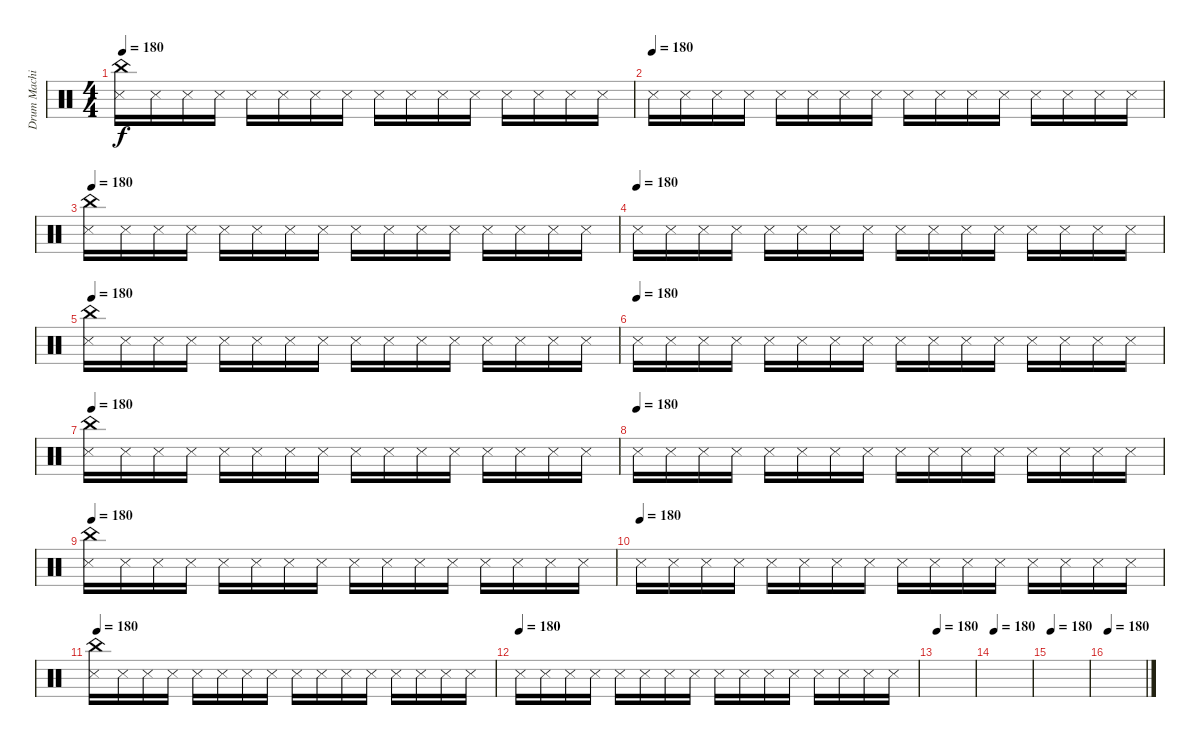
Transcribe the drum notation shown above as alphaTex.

\track ("Drum Machine" "Drum Machi") {instrument percussion}
\staff {score}
\articulation defaults
\ts (4 4)
\tempo 180
\clef neutral
\ks c
("China (hit)" "Snare (side stick) 3").16{dy f} "Snare (side stick) 3".16 "Snare (side stick) 3".16 "Snare (side stick) 3".16 "Snare (side stick) 3".16 "Snare (side stick) 3".16 "Snare (side stick) 3".16 "Snare (side stick) 3".16 "Snare (side stick) 3".16 "Snare (side stick) 3".16 "Snare (side stick) 3".16 "Snare (side stick) 3".16 "Snare (side stick) 3".16 "Snare (side stick) 3".16 "Snare (side stick) 3".16 "Snare (side stick) 3".16 |
\tempo (180)
"Snare (side stick) 3".16 "Snare (side stick) 3".16 "Snare (side stick) 3".16 "Snare (side stick) 3".16 "Snare (side stick) 3".16 "Snare (side stick) 3".16 "Snare (side stick) 3".16 "Snare (side stick) 3".16 "Snare (side stick) 3".16 "Snare (side stick) 3".16 "Snare (side stick) 3".16 "Snare (side stick) 3".16 "Snare (side stick) 3".16 "Snare (side stick) 3".16 "Snare (side stick) 3".16 "Snare (side stick) 3".16 |
\tempo 180
("China (hit)" "Snare (side stick) 3").16 "Snare (side stick) 3".16 "Snare (side stick) 3".16 "Snare (side stick) 3".16 "Snare (side stick) 3".16 "Snare (side stick) 3".16 "Snare (side stick) 3".16 "Snare (side stick) 3".16 "Snare (side stick) 3".16 "Snare (side stick) 3".16 "Snare (side stick) 3".16 "Snare (side stick) 3".16 "Snare (side stick) 3".16 "Snare (side stick) 3".16 "Snare (side stick) 3".16 "Snare (side stick) 3".16 |
\tempo (180)
"Snare (side stick) 3".16 "Snare (side stick) 3".16 "Snare (side stick) 3".16 "Snare (side stick) 3".16 "Snare (side stick) 3".16 "Snare (side stick) 3".16 "Snare (side stick) 3".16 "Snare (side stick) 3".16 "Snare (side stick) 3".16 "Snare (side stick) 3".16 "Snare (side stick) 3".16 "Snare (side stick) 3".16 "Snare (side stick) 3".16 "Snare (side stick) 3".16 "Snare (side stick) 3".16 "Snare (side stick) 3".16 |
\tempo 180
("China (hit)" "Snare (side stick) 3").16 "Snare (side stick) 3".16 "Snare (side stick) 3".16 "Snare (side stick) 3".16 "Snare (side stick) 3".16 "Snare (side stick) 3".16 "Snare (side stick) 3".16 "Snare (side stick) 3".16 "Snare (side stick) 3".16 "Snare (side stick) 3".16 "Snare (side stick) 3".16 "Snare (side stick) 3".16 "Snare (side stick) 3".16 "Snare (side stick) 3".16 "Snare (side stick) 3".16 "Snare (side stick) 3".16 |
\tempo (180)
"Snare (side stick) 3".16 "Snare (side stick) 3".16 "Snare (side stick) 3".16 "Snare (side stick) 3".16 "Snare (side stick) 3".16 "Snare (side stick) 3".16 "Snare (side stick) 3".16 "Snare (side stick) 3".16 "Snare (side stick) 3".16 "Snare (side stick) 3".16 "Snare (side stick) 3".16 "Snare (side stick) 3".16 "Snare (side stick) 3".16 "Snare (side stick) 3".16 "Snare (side stick) 3".16 "Snare (side stick) 3".16 |
\tempo 180
("China (hit)" "Snare (side stick) 3").16 "Snare (side stick) 3".16 "Snare (side stick) 3".16 "Snare (side stick) 3".16 "Snare (side stick) 3".16 "Snare (side stick) 3".16 "Snare (side stick) 3".16 "Snare (side stick) 3".16 "Snare (side stick) 3".16 "Snare (side stick) 3".16 "Snare (side stick) 3".16 "Snare (side stick) 3".16 "Snare (side stick) 3".16 "Snare (side stick) 3".16 "Snare (side stick) 3".16 "Snare (side stick) 3".16 |
\tempo (180)
"Snare (side stick) 3".16 "Snare (side stick) 3".16 "Snare (side stick) 3".16 "Snare (side stick) 3".16 "Snare (side stick) 3".16 "Snare (side stick) 3".16 "Snare (side stick) 3".16 "Snare (side stick) 3".16 "Snare (side stick) 3".16 "Snare (side stick) 3".16 "Snare (side stick) 3".16 "Snare (side stick) 3".16 "Snare (side stick) 3".16 "Snare (side stick) 3".16 "Snare (side stick) 3".16 "Snare (side stick) 3".16 |
\tempo 180
("China (hit)" "Snare (side stick) 3").16 "Snare (side stick) 3".16 "Snare (side stick) 3".16 "Snare (side stick) 3".16 "Snare (side stick) 3".16 "Snare (side stick) 3".16 "Snare (side stick) 3".16 "Snare (side stick) 3".16 "Snare (side stick) 3".16 "Snare (side stick) 3".16 "Snare (side stick) 3".16 "Snare (side stick) 3".16 "Snare (side stick) 3".16 "Snare (side stick) 3".16 "Snare (side stick) 3".16 "Snare (side stick) 3".16 |
\tempo (180)
"Snare (side stick) 3".16 "Snare (side stick) 3".16 "Snare (side stick) 3".16 "Snare (side stick) 3".16 "Snare (side stick) 3".16 "Snare (side stick) 3".16 "Snare (side stick) 3".16 "Snare (side stick) 3".16 "Snare (side stick) 3".16 "Snare (side stick) 3".16 "Snare (side stick) 3".16 "Snare (side stick) 3".16 "Snare (side stick) 3".16 "Snare (side stick) 3".16 "Snare (side stick) 3".16 "Snare (side stick) 3".16 |
\tempo 180
("China (hit)" "Snare (side stick) 3").16 "Snare (side stick) 3".16 "Snare (side stick) 3".16 "Snare (side stick) 3".16 "Snare (side stick) 3".16 "Snare (side stick) 3".16 "Snare (side stick) 3".16 "Snare (side stick) 3".16 "Snare (side stick) 3".16 "Snare (side stick) 3".16 "Snare (side stick) 3".16 "Snare (side stick) 3".16 "Snare (side stick) 3".16 "Snare (side stick) 3".16 "Snare (side stick) 3".16 "Snare (side stick) 3".16 |
\tempo (180)
"Snare (side stick) 3".16 "Snare (side stick) 3".16 "Snare (side stick) 3".16 "Snare (side stick) 3".16 "Snare (side stick) 3".16 "Snare (side stick) 3".16 "Snare (side stick) 3".16 "Snare (side stick) 3".16 "Snare (side stick) 3".16 "Snare (side stick) 3".16 "Snare (side stick) 3".16 "Snare (side stick) 3".16 "Snare (side stick) 3".16 "Snare (side stick) 3".16 "Snare (side stick) 3".16 "Snare (side stick) 3".16 |
\tempo 180
|
\tempo 180
|
\tempo 180
|
\tempo 180
